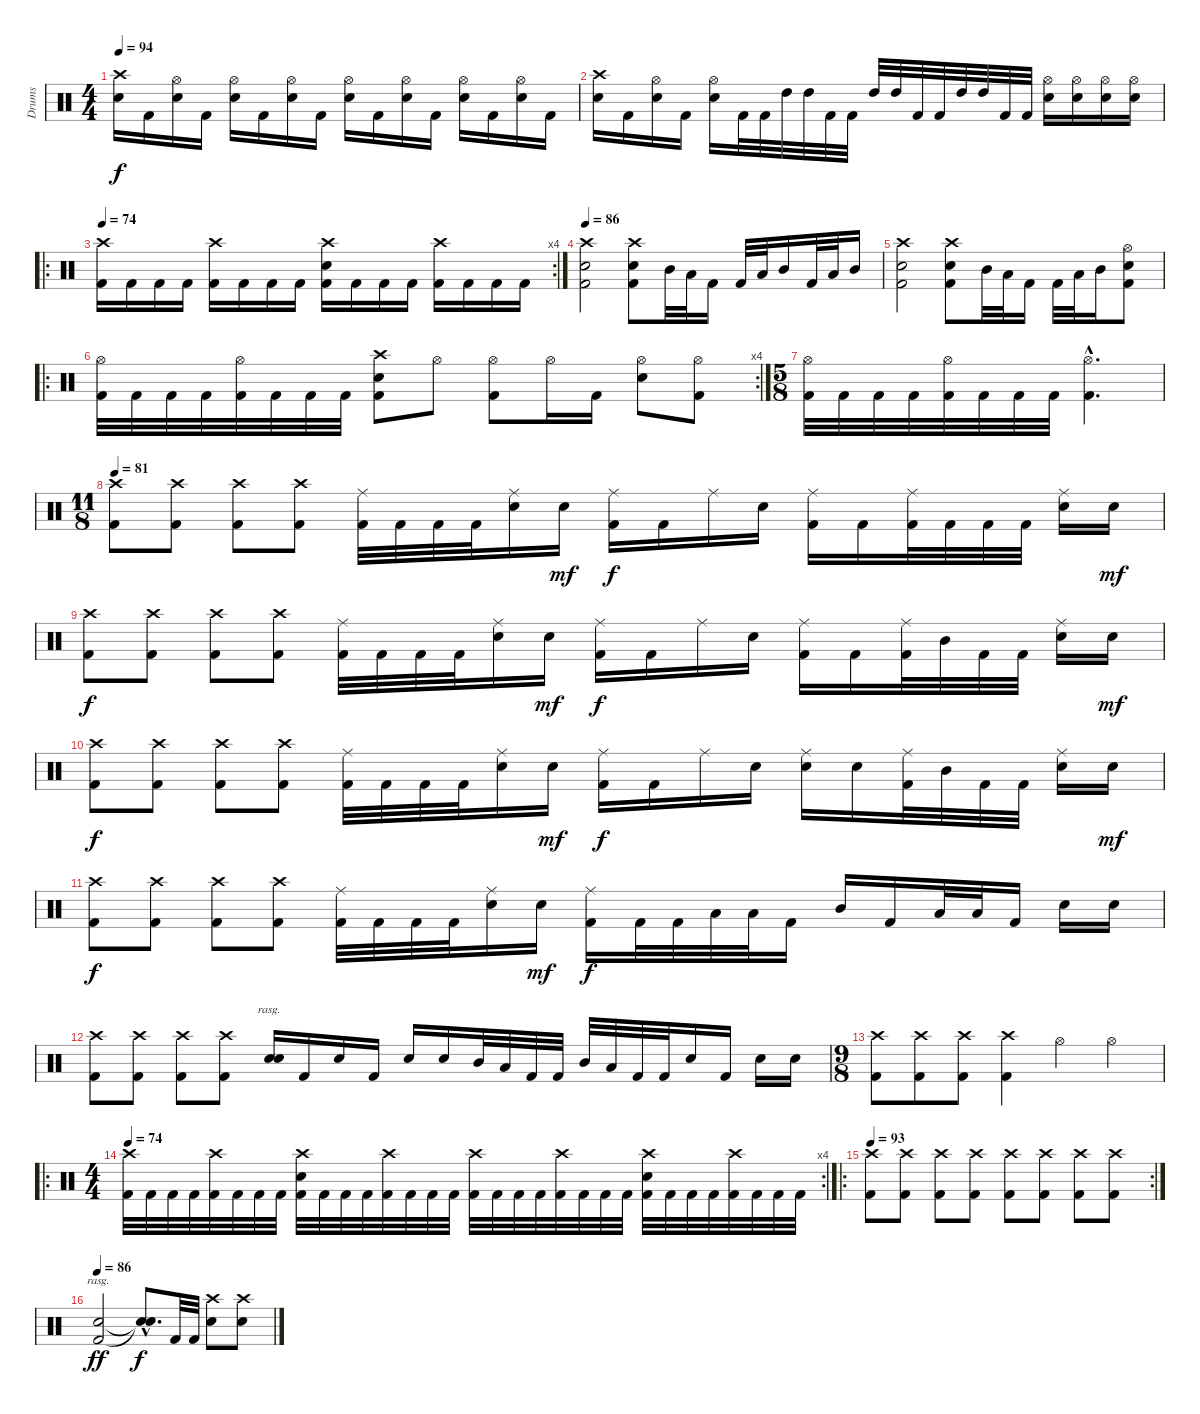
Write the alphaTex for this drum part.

\track ("Drums" "Drums") {instrument percussion}
\staff {score}
\articulation defaults
\ts (4 4)
\tempo 94
\clef neutral
\ks c
("Crash high (hit)" "Electric Snare (hit)").16{dy f} "Kick (hit) 2".16 ("Hi-Hat (open)" "Electric Snare (hit)").16 "Kick (hit) 2".16 ("Hi-Hat (open)" "Electric Snare (hit)").16 "Kick (hit) 2".16 ("Hi-Hat (open)" "Electric Snare (hit)").16 "Kick (hit) 2".16 ("Hi-Hat (open)" "Electric Snare (hit)").16 "Kick (hit) 2".16 ("Hi-Hat (open)" "Electric Snare (hit)").16 "Kick (hit) 2".16 ("Hi-Hat (open)" "Electric Snare (hit)").16 "Kick (hit) 2".16 ("Hi-Hat (open)" "Electric Snare (hit)").16 "Kick (hit) 2".16 |
("Crash high (hit)" "Electric Snare (hit)").16 "Kick (hit) 2".16 ("Hi-Hat (open)" "Electric Snare (hit)").16 "Kick (hit) 2".16 ("Hi-Hat (open)" "Electric Snare (hit)").16 "Kick (hit) 2".32 "Kick (hit) 2".32 "High Tom (hit)".32 "High Tom (hit)".32 "Kick (hit) 2".32 "Kick (hit) 2".32 "High Tom (hit)".32 "High Tom (hit)".32 "Kick (hit) 2".32 "Kick (hit) 2".32 "High Tom (hit)".32 "High Tom (hit)".32 "Kick (hit) 2".32 "Kick (hit) 2".32 ("Hi-Hat (open)" "Electric Snare (hit)").16 ("Hi-Hat (open)" "Electric Snare (hit)").16 ("Hi-Hat (open)" "Electric Snare (hit)").16 ("Hi-Hat (open)" "Electric Snare (hit)").16 |
\ro
\rc 4
\tempo 74
("Crash high (hit)" "Kick (hit) 2").16 "Kick (hit) 2".16 "Kick (hit) 2".16 "Kick (hit) 2".16 ("Crash high (hit)" "Kick (hit) 2").16 "Kick (hit) 2".16 "Kick (hit) 2".16 "Kick (hit) 2".16 ("Crash high (hit)" "Electric Snare (hit)" "Kick (hit) 2").16 "Kick (hit) 2".16 "Kick (hit) 2".16 "Kick (hit) 2".16 ("Crash high (hit)" "Kick (hit) 2").16 "Kick (hit) 2".16 "Kick (hit) 2".16 "Kick (hit) 2".16 |
\tempo 86
("Crash high (hit)" "Electric Snare (hit)" "Kick (hit) 2").2 ("Crash high (hit)" "Electric Snare (hit)" "Kick (hit) 2").8 "Mid Tom (hit)".32 "Low Tom (hit)".32 "Kick (hit) 2".16 "Kick (hit) 2".32 "Low Tom (hit)".32 "Mid Tom (hit)".16 "Kick (hit) 2".32 "Low Tom (hit)".32 "Mid Tom (hit)".16 |
("Crash high (hit)" "Electric Snare (hit)" "Kick (hit) 2").2 ("Crash high (hit)" "Electric Snare (hit)" "Kick (hit) 2").8 "Mid Tom (hit)".32 "Low Tom (hit)".32 "Kick (hit) 2".16 "Kick (hit) 2".32 "Low Tom (hit)".32 "Mid Tom (hit)".16 ("Hi-Hat (open)" "Electric Snare (hit)" "Kick (hit) 2").8 |
\ro
\rc 4
("Hi-Hat (open)" "Kick (hit) 2").32 "Kick (hit) 2".32 "Kick (hit) 2".32 "Kick (hit) 2".32 ("Hi-Hat (open)" "Kick (hit) 2").32 "Kick (hit) 2".32 "Kick (hit) 2".32 "Kick (hit) 2".32 ("Crash high (hit)" "Electric Snare (hit)" "Kick (hit) 2").8 "Hi-Hat (open)".8 ("Hi-Hat (open)" "Kick (hit) 2").8 "Hi-Hat (open)".16 "Kick (hit) 2".16 ("Hi-Hat (open)" "Electric Snare (hit)").8 ("Hi-Hat (open)" "Kick (hit) 2").8 |
\ts (5 8)
("Hi-Hat (open)" "Kick (hit) 2").32 "Kick (hit) 2".32 "Kick (hit) 2".32 "Kick (hit) 2".32 ("Hi-Hat (open)" "Kick (hit) 2").32 "Kick (hit) 2".32 "Kick (hit) 2".32 "Kick (hit) 2".32 ("Hi-Hat (open)"{hac} "Kick (hit) 2"{hac}).4{d} |
\ts (11 8)
\tempo 81
("Crash high (hit)" "Kick (hit) 2").8 ("Crash high (hit)" "Kick (hit) 2").8 ("Crash high (hit)" "Kick (hit) 2").8 ("Crash high (hit)" "Kick (hit) 2").8 ("Ride (middle)" "Kick (hit) 2").32 "Kick (hit) 2".32 "Kick (hit) 2".32 "Kick (hit) 2".32 ("Ride (middle)" "Electric Snare (hit)").16 "Electric Snare (hit)".16{dy mf} ("Ride (middle)" "Kick (hit) 2").16{dy f} "Kick (hit) 2".16 "Ride (middle)".16 "Electric Snare (hit)".16 ("Ride (middle)" "Kick (hit) 2").16 "Kick (hit) 2".16 ("Ride (middle)" "Kick (hit) 2").32 "Kick (hit) 2".32 "Kick (hit) 2".32 "Kick (hit) 2".32 ("Ride (middle)" "Electric Snare (hit)").16 "Electric Snare (hit)".16{dy mf} |
("Crash high (hit)" "Kick (hit) 2").8{dy f} ("Crash high (hit)" "Kick (hit) 2").8 ("Crash high (hit)" "Kick (hit) 2").8 ("Crash high (hit)" "Kick (hit) 2").8 ("Ride (middle)" "Kick (hit) 2").32 "Kick (hit) 2".32 "Kick (hit) 2".32 "Kick (hit) 2".32 ("Ride (middle)" "Electric Snare (hit)").16 "Electric Snare (hit)".16{dy mf} ("Ride (middle)" "Kick (hit) 2").16{dy f} "Kick (hit) 2".16 "Ride (middle)".16 "Electric Snare (hit)".16 ("Ride (middle)" "Kick (hit) 2").16 "Kick (hit) 2".16 ("Ride (middle)" "Kick (hit) 2").32 "Mid Tom (hit)".32 "Kick (hit) 2".32 "Kick (hit) 2".32 ("Ride (middle)" "Electric Snare (hit)").16 "Electric Snare (hit)".16{dy mf} |
("Crash high (hit)" "Kick (hit) 2").8{dy f} ("Crash high (hit)" "Kick (hit) 2").8 ("Crash high (hit)" "Kick (hit) 2").8 ("Crash high (hit)" "Kick (hit) 2").8 ("Ride (middle)" "Kick (hit) 2").32 "Kick (hit) 2".32 "Kick (hit) 2".32 "Kick (hit) 2".32 ("Ride (middle)" "Electric Snare (hit)").16 "Electric Snare (hit)".16{dy mf} ("Ride (middle)" "Kick (hit) 2").16{dy f} "Kick (hit) 2".16 "Ride (middle)".16 "Electric Snare (hit)".16 ("Ride (middle)" "Electric Snare (hit)").16 "Electric Snare (hit)".16 ("Ride (middle)" "Kick (hit) 2").32 "Mid Tom (hit)".32 "Kick (hit) 2".32 "Kick (hit) 2".32 ("Ride (middle)" "Electric Snare (hit)").16 "Electric Snare (hit)".16{dy mf} |
("Crash high (hit)" "Kick (hit) 2").8{dy f} ("Crash high (hit)" "Kick (hit) 2").8 ("Crash high (hit)" "Kick (hit) 2").8 ("Crash high (hit)" "Kick (hit) 2").8 ("Ride (middle)" "Kick (hit) 2").32 "Kick (hit) 2".32 "Kick (hit) 2".32 "Kick (hit) 2".32 ("Ride (middle)" "Electric Snare (hit)").16 "Electric Snare (hit)".16{dy mf} ("Ride (middle)" "Kick (hit) 2").16{dy f} "Kick (hit) 2".32 "Kick (hit) 2".32 "Low Tom (hit)".32 "Low Tom (hit)".32 "Kick (hit) 2".16 "Mid Tom (hit)".16 "Kick (hit) 2".16 "Low Tom (hit)".32 "Low Tom (hit)".32 "Kick (hit) 2".16 "Electric Snare (hit)".16 "Electric Snare (hit)".16 |
("Crash high (hit)" "Kick (hit) 2").8 ("Crash high (hit)" "Kick (hit) 2").8 ("Crash high (hit)" "Kick (hit) 2").8 ("Crash high (hit)" "Kick (hit) 2").8 ("Electric Snare (hit)" "Electric Snare (hit)").16{bd 480 rasg ii} "Kick (hit) 2".16 "Electric Snare (hit)".16 "Kick (hit) 2".16 "Electric Snare (hit)".16 "Electric Snare (hit)".16 "Mid Tom (hit)".32 "Low Tom (hit)".32 "Kick (hit) 2".32 "Kick (hit) 2".32 "Mid Tom (hit)".32 "Low Tom (hit)".32 "Kick (hit) 2".32 "Kick (hit) 2".32 "Electric Snare (hit)".16 "Kick (hit) 2".16 "Electric Snare (hit)".16 "Electric Snare (hit)".16 |
\ts (9 8)
("Crash high (hit)" "Kick (hit) 2").8 ("Crash high (hit)" "Kick (hit) 2").8 ("Crash high (hit)" "Kick (hit) 2").8 ("Crash high (hit)" "Kick (hit) 2").4 "Hi-Hat (open)".4 "Hi-Hat (open)".4 |
\ro
\rc 4
\ts (4 4)
\tempo 74
("Crash high (hit)" "Kick (hit) 2").32 "Kick (hit) 2".32 "Kick (hit) 2".32 "Kick (hit) 2".32 ("Crash high (hit)" "Kick (hit) 2").32 "Kick (hit) 2".32 "Kick (hit) 2".32 "Kick (hit) 2".32 ("Crash high (hit)" "Electric Snare (hit)" "Kick (hit) 2").32 "Kick (hit) 2".32 "Kick (hit) 2".32 "Kick (hit) 2".32 ("Crash high (hit)" "Kick (hit) 2").32 "Kick (hit) 2".32 "Kick (hit) 2".32 "Kick (hit) 2".32 ("Crash high (hit)" "Kick (hit) 2").32 "Kick (hit) 2".32 "Kick (hit) 2".32 "Kick (hit) 2".32 ("Crash high (hit)" "Kick (hit) 2").32 "Kick (hit) 2".32 "Kick (hit) 2".32 "Kick (hit) 2".32 ("Crash high (hit)" "Electric Snare (hit)" "Kick (hit) 2").32 "Kick (hit) 2".32 "Kick (hit) 2".32 "Kick (hit) 2".32 ("Crash high (hit)" "Kick (hit) 2").32 "Kick (hit) 2".32 "Kick (hit) 2".32 "Kick (hit) 2".32 |
\ro
\rc 2
\tempo 93
("Crash high (hit)" "Kick (hit) 2").8 ("Crash high (hit)" "Kick (hit) 2").8 ("Crash high (hit)" "Kick (hit) 2").8 ("Crash high (hit)" "Kick (hit) 2").8 ("Crash high (hit)" "Kick (hit) 2").8 ("Crash high (hit)" "Kick (hit) 2").8 ("Crash high (hit)" "Kick (hit) 2").8 ("Crash high (hit)" "Kick (hit) 2").8 |
\tempo 86
("Electric Snare (hit)" "Kick (hit) 2").2{bd 120 rasg ii dy ff} ("Snare (hit)"{hac t} "Snare (hit)"{hac t}).8{d dy f} "Kick (hit) 2".32 "Kick (hit) 2".32 ("Crash high (hit)" "Electric Snare (hit)").8 ("Crash high (hit)" "Electric Snare (hit)").8
